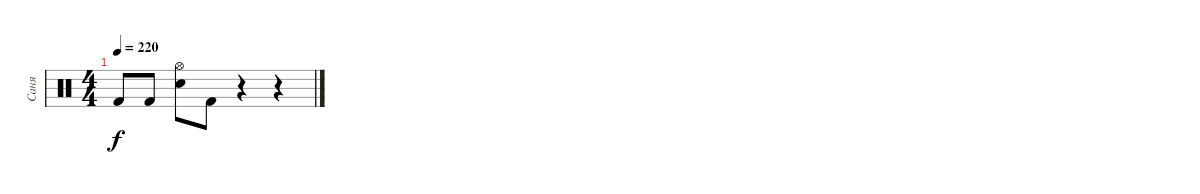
\track ("Саня" "Саня") {instrument percussion}
\staff {score}
\articulation defaults
\ts (4 4)
\tempo 220
\clef neutral
\ks c "Kick (hit) 2".8{dy f} "Kick (hit) 2".8
("Hi-Hat (open)" "Electric Snare (hit)").8 "Kick (hit) 2".8 r.4 r.4
